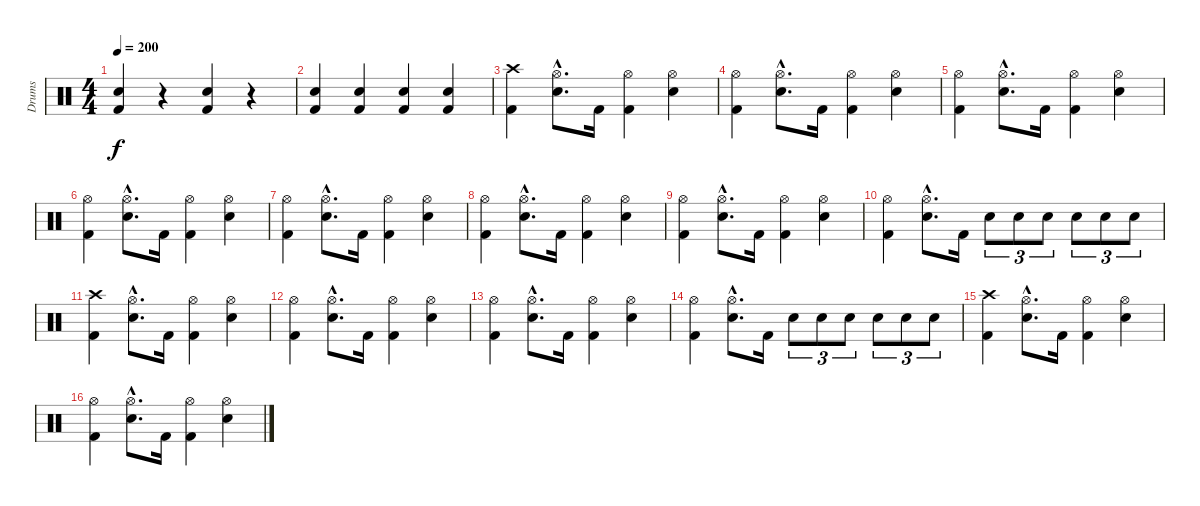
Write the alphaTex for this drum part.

\track ("Drums" "Drums") {instrument percussion}
\staff {score}
\articulation defaults
\ts (4 4)
\tempo 200
\clef neutral
\ks c
("Electric Snare (hit)" "Kick (hit) 2").4{dy f} r.4 ("Electric Snare (hit)" "Kick (hit) 2").4 r.4 |
("Electric Snare (hit)" "Kick (hit) 2").4 ("Electric Snare (hit)" "Kick (hit) 2").4 ("Electric Snare (hit)" "Kick (hit) 2").4 ("Electric Snare (hit)" "Kick (hit) 2").4 |
("Crash high (hit)" "Kick (hit) 2").4 ("Hi-Hat (open)"{hac} "Electric Snare (hit)"{hac}).8{d} "Kick (hit) 2".16 ("Hi-Hat (open)" "Kick (hit) 2").4 ("Hi-Hat (open)" "Electric Snare (hit)").4 |
("Hi-Hat (open)" "Kick (hit) 2").4 ("Hi-Hat (open)"{hac} "Electric Snare (hit)"{hac}).8{d} "Kick (hit) 2".16 ("Hi-Hat (open)" "Kick (hit) 2").4 ("Hi-Hat (open)" "Electric Snare (hit)").4 |
("Hi-Hat (open)" "Kick (hit) 2").4 ("Hi-Hat (open)"{hac} "Electric Snare (hit)"{hac}).8{d} "Kick (hit) 2".16 ("Hi-Hat (open)" "Kick (hit) 2").4 ("Hi-Hat (open)" "Electric Snare (hit)").4 |
("Hi-Hat (open)" "Kick (hit) 2").4 ("Hi-Hat (open)"{hac} "Electric Snare (hit)"{hac}).8{d} "Kick (hit) 2".16 ("Hi-Hat (open)" "Kick (hit) 2").4 ("Hi-Hat (open)" "Electric Snare (hit)").4 |
("Hi-Hat (open)" "Kick (hit) 2").4 ("Hi-Hat (open)"{hac} "Electric Snare (hit)"{hac}).8{d} "Kick (hit) 2".16 ("Hi-Hat (open)" "Kick (hit) 2").4 ("Hi-Hat (open)" "Electric Snare (hit)").4 |
("Hi-Hat (open)" "Kick (hit) 2").4 ("Hi-Hat (open)"{hac} "Electric Snare (hit)"{hac}).8{d} "Kick (hit) 2".16 ("Hi-Hat (open)" "Kick (hit) 2").4 ("Hi-Hat (open)" "Electric Snare (hit)").4 |
("Hi-Hat (open)" "Kick (hit) 2").4 ("Hi-Hat (open)"{hac} "Electric Snare (hit)"{hac}).8{d} "Kick (hit) 2".16 ("Hi-Hat (open)" "Kick (hit) 2").4 ("Hi-Hat (open)" "Electric Snare (hit)").4 |
("Hi-Hat (open)" "Kick (hit) 2").4 ("Hi-Hat (open)"{hac} "Electric Snare (hit)"{hac}).8{d} "Kick (hit) 2".16 "Electric Snare (hit)".8{tu (3 2)} "Electric Snare (hit)".8{tu (3 2)} "Electric Snare (hit)".8{tu (3 2)} "Electric Snare (hit)".8{tu (3 2)} "Electric Snare (hit)".8{tu (3 2)} "Electric Snare (hit)".8{tu (3 2)} |
("Crash high (hit)" "Kick (hit) 2").4 ("Hi-Hat (open)"{hac} "Electric Snare (hit)"{hac}).8{d} "Kick (hit) 2".16 ("Hi-Hat (open)" "Kick (hit) 2").4 ("Hi-Hat (open)" "Electric Snare (hit)").4 |
("Hi-Hat (open)" "Kick (hit) 2").4 ("Hi-Hat (open)"{hac} "Electric Snare (hit)"{hac}).8{d} "Kick (hit) 2".16 ("Hi-Hat (open)" "Kick (hit) 2").4 ("Hi-Hat (open)" "Electric Snare (hit)").4 |
("Hi-Hat (open)" "Kick (hit) 2").4 ("Hi-Hat (open)"{hac} "Electric Snare (hit)"{hac}).8{d} "Kick (hit) 2".16 ("Hi-Hat (open)" "Kick (hit) 2").4 ("Hi-Hat (open)" "Electric Snare (hit)").4 |
("Hi-Hat (open)" "Kick (hit) 2").4 ("Hi-Hat (open)"{hac} "Electric Snare (hit)"{hac}).8{d} "Kick (hit) 2".16 "Electric Snare (hit)".8{tu (3 2)} "Electric Snare (hit)".8{tu (3 2)} "Electric Snare (hit)".8{tu (3 2)} "Electric Snare (hit)".8{tu (3 2)} "Electric Snare (hit)".8{tu (3 2)} "Electric Snare (hit)".8{tu (3 2)} |
("Crash high (hit)" "Kick (hit) 2").4 ("Hi-Hat (open)"{hac} "Electric Snare (hit)"{hac}).8{d} "Kick (hit) 2".16 ("Hi-Hat (open)" "Kick (hit) 2").4 ("Hi-Hat (open)" "Electric Snare (hit)").4 |
("Hi-Hat (open)" "Kick (hit) 2").4 ("Hi-Hat (open)"{hac} "Electric Snare (hit)"{hac}).8{d} "Kick (hit) 2".16 ("Hi-Hat (open)" "Kick (hit) 2").4 ("Hi-Hat (open)" "Electric Snare (hit)").4
